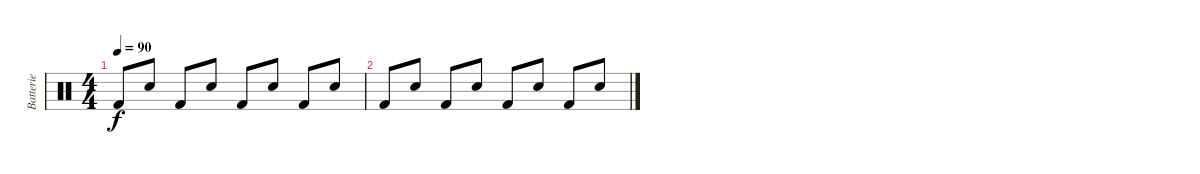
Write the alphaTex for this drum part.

\track ("Batterie" "Batterie") {instrument percussion}
\staff {score}
\articulation defaults
\ts (4 4)
\tempo 90
\clef neutral
\ks c "Kick (hit) 2".8{dy f} "Electric Snare (hit)".8 "Kick (hit) 2".8 "Electric Snare (hit)".8 "Kick (hit) 2".8 "Electric Snare (hit)".8 "Kick (hit) 2".8 "Electric Snare (hit)".8
|
"Kick (hit) 2".8 "Electric Snare (hit)".8 "Kick (hit) 2".8 "Electric Snare (hit)".8 "Kick (hit) 2".8 "Electric Snare (hit)".8 "Kick (hit) 2".8 "Electric Snare (hit)".8
